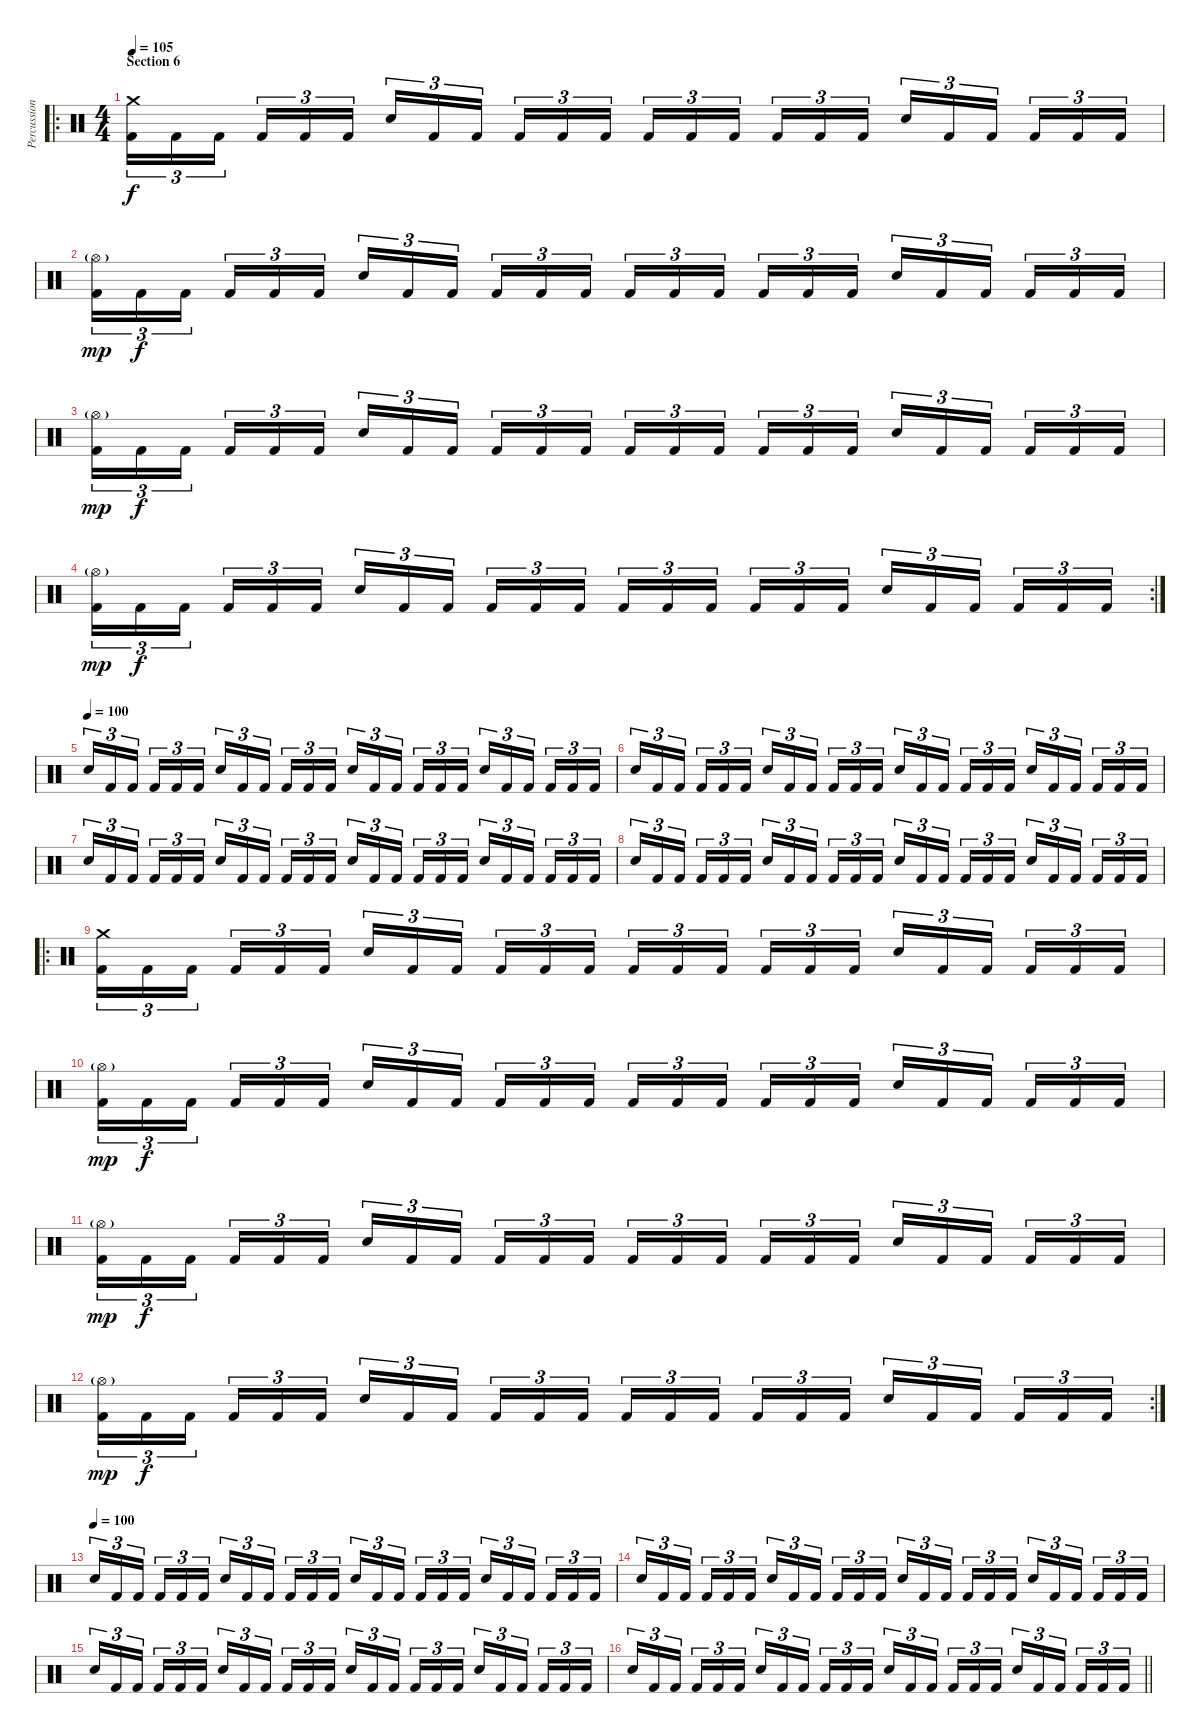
\track ("Percussions" "Percussion") {instrument percussion}
\staff {score}
\articulation defaults
\ro
\ts (4 4)
\section ("" "Section 6")
\tempo 105
\clef neutral
\ks c
("Crash medium (hit)" "Kick (hit) 2").16{tu (3 2) dy f} "Kick (hit) 2".16{tu (3 2)} "Kick (hit) 2".16{tu (3 2)} "Kick (hit) 2".16{tu (3 2)} "Kick (hit) 2".16{tu (3 2)} "Kick (hit) 2".16{tu (3 2)} "Electric Snare (hit)".16{tu (3 2)} "Kick (hit) 2".16{tu (3 2)} "Kick (hit) 2".16{tu (3 2)} "Kick (hit) 2".16{tu (3 2)} "Kick (hit) 2".16{tu (3 2)} "Kick (hit) 2".16{tu (3 2)} "Kick (hit) 2".16{tu (3 2)} "Kick (hit) 2".16{tu (3 2)} "Kick (hit) 2".16{tu (3 2)} "Kick (hit) 2".16{tu (3 2)} "Kick (hit) 2".16{tu (3 2)} "Kick (hit) 2".16{tu (3 2)} "Electric Snare (hit)".16{tu (3 2)} "Kick (hit) 2".16{tu (3 2)} "Kick (hit) 2".16{tu (3 2)} "Kick (hit) 2".16{tu (3 2)} "Kick (hit) 2".16{tu (3 2)} "Kick (hit) 2".16{tu (3 2)} |
("Hi-Hat (open)"{g} "Kick (hit) 2").16{tu (3 2) dy mp} "Kick (hit) 2".16{tu (3 2) dy f} "Kick (hit) 2".16{tu (3 2)} "Kick (hit) 2".16{tu (3 2)} "Kick (hit) 2".16{tu (3 2)} "Kick (hit) 2".16{tu (3 2)} "Electric Snare (hit)".16{tu (3 2)} "Kick (hit) 2".16{tu (3 2)} "Kick (hit) 2".16{tu (3 2)} "Kick (hit) 2".16{tu (3 2)} "Kick (hit) 2".16{tu (3 2)} "Kick (hit) 2".16{tu (3 2)} "Kick (hit) 2".16{tu (3 2)} "Kick (hit) 2".16{tu (3 2)} "Kick (hit) 2".16{tu (3 2)} "Kick (hit) 2".16{tu (3 2)} "Kick (hit) 2".16{tu (3 2)} "Kick (hit) 2".16{tu (3 2)} "Electric Snare (hit)".16{tu (3 2)} "Kick (hit) 2".16{tu (3 2)} "Kick (hit) 2".16{tu (3 2)} "Kick (hit) 2".16{tu (3 2)} "Kick (hit) 2".16{tu (3 2)} "Kick (hit) 2".16{tu (3 2)} |
("Hi-Hat (open)"{g} "Kick (hit) 2").16{tu (3 2) dy mp} "Kick (hit) 2".16{tu (3 2) dy f} "Kick (hit) 2".16{tu (3 2)} "Kick (hit) 2".16{tu (3 2)} "Kick (hit) 2".16{tu (3 2)} "Kick (hit) 2".16{tu (3 2)} "Electric Snare (hit)".16{tu (3 2)} "Kick (hit) 2".16{tu (3 2)} "Kick (hit) 2".16{tu (3 2)} "Kick (hit) 2".16{tu (3 2)} "Kick (hit) 2".16{tu (3 2)} "Kick (hit) 2".16{tu (3 2)} "Kick (hit) 2".16{tu (3 2)} "Kick (hit) 2".16{tu (3 2)} "Kick (hit) 2".16{tu (3 2)} "Kick (hit) 2".16{tu (3 2)} "Kick (hit) 2".16{tu (3 2)} "Kick (hit) 2".16{tu (3 2)} "Electric Snare (hit)".16{tu (3 2)} "Kick (hit) 2".16{tu (3 2)} "Kick (hit) 2".16{tu (3 2)} "Kick (hit) 2".16{tu (3 2)} "Kick (hit) 2".16{tu (3 2)} "Kick (hit) 2".16{tu (3 2)} |
\rc 2
("Hi-Hat (open)"{g} "Kick (hit) 2").16{tu (3 2) dy mp} "Kick (hit) 2".16{tu (3 2) dy f} "Kick (hit) 2".16{tu (3 2)} "Kick (hit) 2".16{tu (3 2)} "Kick (hit) 2".16{tu (3 2)} "Kick (hit) 2".16{tu (3 2)} "Electric Snare (hit)".16{tu (3 2)} "Kick (hit) 2".16{tu (3 2)} "Kick (hit) 2".16{tu (3 2)} "Kick (hit) 2".16{tu (3 2)} "Kick (hit) 2".16{tu (3 2)} "Kick (hit) 2".16{tu (3 2)} "Kick (hit) 2".16{tu (3 2)} "Kick (hit) 2".16{tu (3 2)} "Kick (hit) 2".16{tu (3 2)} "Kick (hit) 2".16{tu (3 2)} "Kick (hit) 2".16{tu (3 2)} "Kick (hit) 2".16{tu (3 2)} "Electric Snare (hit)".16{tu (3 2)} "Kick (hit) 2".16{tu (3 2)} "Kick (hit) 2".16{tu (3 2)} "Kick (hit) 2".16{tu (3 2)} "Kick (hit) 2".16{tu (3 2)} "Kick (hit) 2".16{tu (3 2)} |
\tempo (100)
"Electric Snare (hit)".16{tu (3 2)} "Kick (hit) 2".16{tu (3 2)} "Kick (hit) 2".16{tu (3 2)} "Kick (hit) 2".16{tu (3 2)} "Kick (hit) 2".16{tu (3 2)} "Kick (hit) 2".16{tu (3 2)} "Electric Snare (hit)".16{tu (3 2)} "Kick (hit) 2".16{tu (3 2)} "Kick (hit) 2".16{tu (3 2)} "Kick (hit) 2".16{tu (3 2)} "Kick (hit) 2".16{tu (3 2)} "Kick (hit) 2".16{tu (3 2)} "Electric Snare (hit)".16{tu (3 2)} "Kick (hit) 2".16{tu (3 2)} "Kick (hit) 2".16{tu (3 2)} "Kick (hit) 2".16{tu (3 2)} "Kick (hit) 2".16{tu (3 2)} "Kick (hit) 2".16{tu (3 2)} "Electric Snare (hit)".16{tu (3 2)} "Kick (hit) 2".16{tu (3 2)} "Kick (hit) 2".16{tu (3 2)} "Kick (hit) 2".16{tu (3 2)} "Kick (hit) 2".16{tu (3 2)} "Kick (hit) 2".16{tu (3 2)} |
"Electric Snare (hit)".16{tu (3 2)} "Kick (hit) 2".16{tu (3 2)} "Kick (hit) 2".16{tu (3 2)} "Kick (hit) 2".16{tu (3 2)} "Kick (hit) 2".16{tu (3 2)} "Kick (hit) 2".16{tu (3 2)} "Electric Snare (hit)".16{tu (3 2)} "Kick (hit) 2".16{tu (3 2)} "Kick (hit) 2".16{tu (3 2)} "Kick (hit) 2".16{tu (3 2)} "Kick (hit) 2".16{tu (3 2)} "Kick (hit) 2".16{tu (3 2)} "Electric Snare (hit)".16{tu (3 2)} "Kick (hit) 2".16{tu (3 2)} "Kick (hit) 2".16{tu (3 2)} "Kick (hit) 2".16{tu (3 2)} "Kick (hit) 2".16{tu (3 2)} "Kick (hit) 2".16{tu (3 2)} "Electric Snare (hit)".16{tu (3 2)} "Kick (hit) 2".16{tu (3 2)} "Kick (hit) 2".16{tu (3 2)} "Kick (hit) 2".16{tu (3 2)} "Kick (hit) 2".16{tu (3 2)} "Kick (hit) 2".16{tu (3 2)} |
"Electric Snare (hit)".16{tu (3 2)} "Kick (hit) 2".16{tu (3 2)} "Kick (hit) 2".16{tu (3 2)} "Kick (hit) 2".16{tu (3 2)} "Kick (hit) 2".16{tu (3 2)} "Kick (hit) 2".16{tu (3 2)} "Electric Snare (hit)".16{tu (3 2)} "Kick (hit) 2".16{tu (3 2)} "Kick (hit) 2".16{tu (3 2)} "Kick (hit) 2".16{tu (3 2)} "Kick (hit) 2".16{tu (3 2)} "Kick (hit) 2".16{tu (3 2)} "Electric Snare (hit)".16{tu (3 2)} "Kick (hit) 2".16{tu (3 2)} "Kick (hit) 2".16{tu (3 2)} "Kick (hit) 2".16{tu (3 2)} "Kick (hit) 2".16{tu (3 2)} "Kick (hit) 2".16{tu (3 2)} "Electric Snare (hit)".16{tu (3 2)} "Kick (hit) 2".16{tu (3 2)} "Kick (hit) 2".16{tu (3 2)} "Kick (hit) 2".16{tu (3 2)} "Kick (hit) 2".16{tu (3 2)} "Kick (hit) 2".16{tu (3 2)} |
"Electric Snare (hit)".16{tu (3 2)} "Kick (hit) 2".16{tu (3 2)} "Kick (hit) 2".16{tu (3 2)} "Kick (hit) 2".16{tu (3 2)} "Kick (hit) 2".16{tu (3 2)} "Kick (hit) 2".16{tu (3 2)} "Electric Snare (hit)".16{tu (3 2)} "Kick (hit) 2".16{tu (3 2)} "Kick (hit) 2".16{tu (3 2)} "Kick (hit) 2".16{tu (3 2)} "Kick (hit) 2".16{tu (3 2)} "Kick (hit) 2".16{tu (3 2)} "Electric Snare (hit)".16{tu (3 2)} "Kick (hit) 2".16{tu (3 2)} "Kick (hit) 2".16{tu (3 2)} "Kick (hit) 2".16{tu (3 2)} "Kick (hit) 2".16{tu (3 2)} "Kick (hit) 2".16{tu (3 2)} "Electric Snare (hit)".16{tu (3 2)} "Kick (hit) 2".16{tu (3 2)} "Kick (hit) 2".16{tu (3 2)} "Kick (hit) 2".16{tu (3 2)} "Kick (hit) 2".16{tu (3 2)} "Kick (hit) 2".16{tu (3 2)} |
\ro
("Crash medium (hit)" "Kick (hit) 2").16{tu (3 2)} "Kick (hit) 2".16{tu (3 2)} "Kick (hit) 2".16{tu (3 2)} "Kick (hit) 2".16{tu (3 2)} "Kick (hit) 2".16{tu (3 2)} "Kick (hit) 2".16{tu (3 2)} "Electric Snare (hit)".16{tu (3 2)} "Kick (hit) 2".16{tu (3 2)} "Kick (hit) 2".16{tu (3 2)} "Kick (hit) 2".16{tu (3 2)} "Kick (hit) 2".16{tu (3 2)} "Kick (hit) 2".16{tu (3 2)} "Kick (hit) 2".16{tu (3 2)} "Kick (hit) 2".16{tu (3 2)} "Kick (hit) 2".16{tu (3 2)} "Kick (hit) 2".16{tu (3 2)} "Kick (hit) 2".16{tu (3 2)} "Kick (hit) 2".16{tu (3 2)} "Electric Snare (hit)".16{tu (3 2)} "Kick (hit) 2".16{tu (3 2)} "Kick (hit) 2".16{tu (3 2)} "Kick (hit) 2".16{tu (3 2)} "Kick (hit) 2".16{tu (3 2)} "Kick (hit) 2".16{tu (3 2)} |
("Hi-Hat (open)"{g} "Kick (hit) 2").16{tu (3 2) dy mp} "Kick (hit) 2".16{tu (3 2) dy f} "Kick (hit) 2".16{tu (3 2)} "Kick (hit) 2".16{tu (3 2)} "Kick (hit) 2".16{tu (3 2)} "Kick (hit) 2".16{tu (3 2)} "Electric Snare (hit)".16{tu (3 2)} "Kick (hit) 2".16{tu (3 2)} "Kick (hit) 2".16{tu (3 2)} "Kick (hit) 2".16{tu (3 2)} "Kick (hit) 2".16{tu (3 2)} "Kick (hit) 2".16{tu (3 2)} "Kick (hit) 2".16{tu (3 2)} "Kick (hit) 2".16{tu (3 2)} "Kick (hit) 2".16{tu (3 2)} "Kick (hit) 2".16{tu (3 2)} "Kick (hit) 2".16{tu (3 2)} "Kick (hit) 2".16{tu (3 2)} "Electric Snare (hit)".16{tu (3 2)} "Kick (hit) 2".16{tu (3 2)} "Kick (hit) 2".16{tu (3 2)} "Kick (hit) 2".16{tu (3 2)} "Kick (hit) 2".16{tu (3 2)} "Kick (hit) 2".16{tu (3 2)} |
("Hi-Hat (open)"{g} "Kick (hit) 2").16{tu (3 2) dy mp} "Kick (hit) 2".16{tu (3 2) dy f} "Kick (hit) 2".16{tu (3 2)} "Kick (hit) 2".16{tu (3 2)} "Kick (hit) 2".16{tu (3 2)} "Kick (hit) 2".16{tu (3 2)} "Electric Snare (hit)".16{tu (3 2)} "Kick (hit) 2".16{tu (3 2)} "Kick (hit) 2".16{tu (3 2)} "Kick (hit) 2".16{tu (3 2)} "Kick (hit) 2".16{tu (3 2)} "Kick (hit) 2".16{tu (3 2)} "Kick (hit) 2".16{tu (3 2)} "Kick (hit) 2".16{tu (3 2)} "Kick (hit) 2".16{tu (3 2)} "Kick (hit) 2".16{tu (3 2)} "Kick (hit) 2".16{tu (3 2)} "Kick (hit) 2".16{tu (3 2)} "Electric Snare (hit)".16{tu (3 2)} "Kick (hit) 2".16{tu (3 2)} "Kick (hit) 2".16{tu (3 2)} "Kick (hit) 2".16{tu (3 2)} "Kick (hit) 2".16{tu (3 2)} "Kick (hit) 2".16{tu (3 2)} |
\rc 2
("Hi-Hat (open)"{g} "Kick (hit) 2").16{tu (3 2) dy mp} "Kick (hit) 2".16{tu (3 2) dy f} "Kick (hit) 2".16{tu (3 2)} "Kick (hit) 2".16{tu (3 2)} "Kick (hit) 2".16{tu (3 2)} "Kick (hit) 2".16{tu (3 2)} "Electric Snare (hit)".16{tu (3 2)} "Kick (hit) 2".16{tu (3 2)} "Kick (hit) 2".16{tu (3 2)} "Kick (hit) 2".16{tu (3 2)} "Kick (hit) 2".16{tu (3 2)} "Kick (hit) 2".16{tu (3 2)} "Kick (hit) 2".16{tu (3 2)} "Kick (hit) 2".16{tu (3 2)} "Kick (hit) 2".16{tu (3 2)} "Kick (hit) 2".16{tu (3 2)} "Kick (hit) 2".16{tu (3 2)} "Kick (hit) 2".16{tu (3 2)} "Electric Snare (hit)".16{tu (3 2)} "Kick (hit) 2".16{tu (3 2)} "Kick (hit) 2".16{tu (3 2)} "Kick (hit) 2".16{tu (3 2)} "Kick (hit) 2".16{tu (3 2)} "Kick (hit) 2".16{tu (3 2)} |
\tempo (100)
"Electric Snare (hit)".16{tu (3 2)} "Kick (hit) 2".16{tu (3 2)} "Kick (hit) 2".16{tu (3 2)} "Kick (hit) 2".16{tu (3 2)} "Kick (hit) 2".16{tu (3 2)} "Kick (hit) 2".16{tu (3 2)} "Electric Snare (hit)".16{tu (3 2)} "Kick (hit) 2".16{tu (3 2)} "Kick (hit) 2".16{tu (3 2)} "Kick (hit) 2".16{tu (3 2)} "Kick (hit) 2".16{tu (3 2)} "Kick (hit) 2".16{tu (3 2)} "Electric Snare (hit)".16{tu (3 2)} "Kick (hit) 2".16{tu (3 2)} "Kick (hit) 2".16{tu (3 2)} "Kick (hit) 2".16{tu (3 2)} "Kick (hit) 2".16{tu (3 2)} "Kick (hit) 2".16{tu (3 2)} "Electric Snare (hit)".16{tu (3 2)} "Kick (hit) 2".16{tu (3 2)} "Kick (hit) 2".16{tu (3 2)} "Kick (hit) 2".16{tu (3 2)} "Kick (hit) 2".16{tu (3 2)} "Kick (hit) 2".16{tu (3 2)} |
"Electric Snare (hit)".16{tu (3 2)} "Kick (hit) 2".16{tu (3 2)} "Kick (hit) 2".16{tu (3 2)} "Kick (hit) 2".16{tu (3 2)} "Kick (hit) 2".16{tu (3 2)} "Kick (hit) 2".16{tu (3 2)} "Electric Snare (hit)".16{tu (3 2)} "Kick (hit) 2".16{tu (3 2)} "Kick (hit) 2".16{tu (3 2)} "Kick (hit) 2".16{tu (3 2)} "Kick (hit) 2".16{tu (3 2)} "Kick (hit) 2".16{tu (3 2)} "Electric Snare (hit)".16{tu (3 2)} "Kick (hit) 2".16{tu (3 2)} "Kick (hit) 2".16{tu (3 2)} "Kick (hit) 2".16{tu (3 2)} "Kick (hit) 2".16{tu (3 2)} "Kick (hit) 2".16{tu (3 2)} "Electric Snare (hit)".16{tu (3 2)} "Kick (hit) 2".16{tu (3 2)} "Kick (hit) 2".16{tu (3 2)} "Kick (hit) 2".16{tu (3 2)} "Kick (hit) 2".16{tu (3 2)} "Kick (hit) 2".16{tu (3 2)} |
"Electric Snare (hit)".16{tu (3 2)} "Kick (hit) 2".16{tu (3 2)} "Kick (hit) 2".16{tu (3 2)} "Kick (hit) 2".16{tu (3 2)} "Kick (hit) 2".16{tu (3 2)} "Kick (hit) 2".16{tu (3 2)} "Electric Snare (hit)".16{tu (3 2)} "Kick (hit) 2".16{tu (3 2)} "Kick (hit) 2".16{tu (3 2)} "Kick (hit) 2".16{tu (3 2)} "Kick (hit) 2".16{tu (3 2)} "Kick (hit) 2".16{tu (3 2)} "Electric Snare (hit)".16{tu (3 2)} "Kick (hit) 2".16{tu (3 2)} "Kick (hit) 2".16{tu (3 2)} "Kick (hit) 2".16{tu (3 2)} "Kick (hit) 2".16{tu (3 2)} "Kick (hit) 2".16{tu (3 2)} "Electric Snare (hit)".16{tu (3 2)} "Kick (hit) 2".16{tu (3 2)} "Kick (hit) 2".16{tu (3 2)} "Kick (hit) 2".16{tu (3 2)} "Kick (hit) 2".16{tu (3 2)} "Kick (hit) 2".16{tu (3 2)} |
\barLineRight lightlight "Electric Snare (hit)".16{tu (3 2)} "Kick (hit) 2".16{tu (3 2)} "Kick (hit) 2".16{tu (3 2)} "Kick (hit) 2".16{tu (3 2)} "Kick (hit) 2".16{tu (3 2)} "Kick (hit) 2".16{tu (3 2)} "Electric Snare (hit)".16{tu (3 2)} "Kick (hit) 2".16{tu (3 2)} "Kick (hit) 2".16{tu (3 2)} "Kick (hit) 2".16{tu (3 2)} "Kick (hit) 2".16{tu (3 2)} "Kick (hit) 2".16{tu (3 2)} "Electric Snare (hit)".16{tu (3 2)} "Kick (hit) 2".16{tu (3 2)} "Kick (hit) 2".16{tu (3 2)} "Kick (hit) 2".16{tu (3 2)} "Kick (hit) 2".16{tu (3 2)} "Kick (hit) 2".16{tu (3 2)} "Electric Snare (hit)".16{tu (3 2)} "Kick (hit) 2".16{tu (3 2)} "Kick (hit) 2".16{tu (3 2)} "Kick (hit) 2".16{tu (3 2)} "Kick (hit) 2".16{tu (3 2)} "Kick (hit) 2".16{tu (3 2)}
